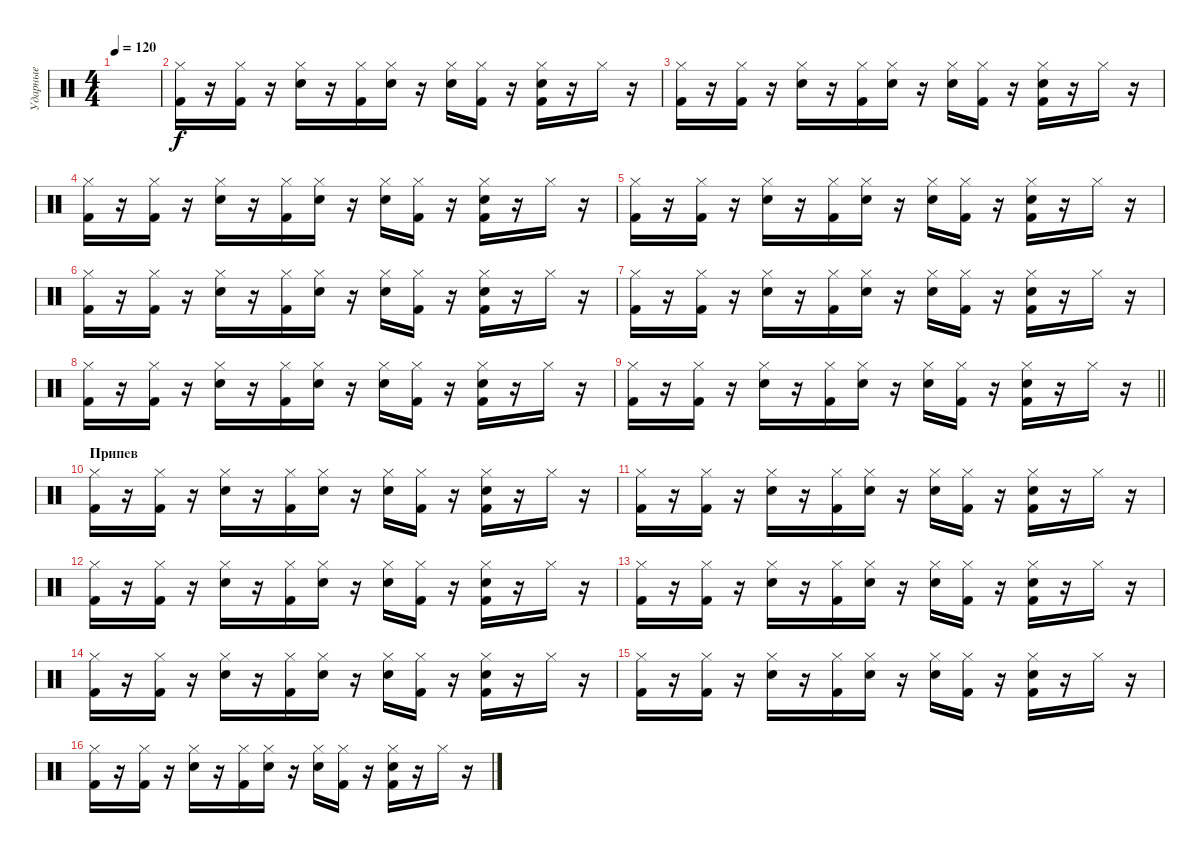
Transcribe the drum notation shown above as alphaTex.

\track ("Ударные" "Ударные") {instrument percussion}
\staff {score}
\articulation defaults
\ts (4 4)
\tempo 120
\clef neutral
\ks c
|
("Hi-Hat (closed)" "Kick (hit) 2").16 r.16 ("Hi-Hat (closed)" "Kick (hit) 2").16 r.16 ("Hi-Hat (closed)" "Electric Snare (hit)").16 r.16 ("Hi-Hat (closed)" "Kick (hit) 2").16 ("Hi-Hat (closed)" "Electric Snare (hit)").16 r.16 ("Hi-Hat (closed)" "Electric Snare (hit)").16 ("Hi-Hat (closed)" "Kick (hit) 2").16 r.16 ("Hi-Hat (closed)" "Electric Snare (hit)" "Kick (hit) 2").16 r.16 "Hi-Hat (closed)".16 r.16 |
("Hi-Hat (closed)" "Kick (hit) 2").16 r.16 ("Hi-Hat (closed)" "Kick (hit) 2").16 r.16 ("Hi-Hat (closed)" "Electric Snare (hit)").16 r.16 ("Hi-Hat (closed)" "Kick (hit) 2").16 ("Hi-Hat (closed)" "Electric Snare (hit)").16 r.16 ("Hi-Hat (closed)" "Electric Snare (hit)").16 ("Hi-Hat (closed)" "Kick (hit) 2").16 r.16 ("Hi-Hat (closed)" "Electric Snare (hit)" "Kick (hit) 2").16 r.16 "Hi-Hat (closed)".16 r.16 |
("Hi-Hat (closed)" "Kick (hit) 2").16 r.16 ("Hi-Hat (closed)" "Kick (hit) 2").16 r.16 ("Hi-Hat (closed)" "Electric Snare (hit)").16 r.16 ("Hi-Hat (closed)" "Kick (hit) 2").16 ("Hi-Hat (closed)" "Electric Snare (hit)").16 r.16 ("Hi-Hat (closed)" "Electric Snare (hit)").16 ("Hi-Hat (closed)" "Kick (hit) 2").16 r.16 ("Hi-Hat (closed)" "Electric Snare (hit)" "Kick (hit) 2").16 r.16 "Hi-Hat (closed)".16 r.16 |
("Hi-Hat (closed)" "Kick (hit) 2").16 r.16 ("Hi-Hat (closed)" "Kick (hit) 2").16 r.16 ("Hi-Hat (closed)" "Electric Snare (hit)").16 r.16 ("Hi-Hat (closed)" "Kick (hit) 2").16 ("Hi-Hat (closed)" "Electric Snare (hit)").16 r.16 ("Hi-Hat (closed)" "Electric Snare (hit)").16 ("Hi-Hat (closed)" "Kick (hit) 2").16 r.16 ("Hi-Hat (closed)" "Electric Snare (hit)" "Kick (hit) 2").16 r.16 "Hi-Hat (closed)".16 r.16 |
("Hi-Hat (closed)" "Kick (hit) 2").16 r.16 ("Hi-Hat (closed)" "Kick (hit) 2").16 r.16 ("Hi-Hat (closed)" "Electric Snare (hit)").16 r.16 ("Hi-Hat (closed)" "Kick (hit) 2").16 ("Hi-Hat (closed)" "Electric Snare (hit)").16 r.16 ("Hi-Hat (closed)" "Electric Snare (hit)").16 ("Hi-Hat (closed)" "Kick (hit) 2").16 r.16 ("Hi-Hat (closed)" "Electric Snare (hit)" "Kick (hit) 2").16 r.16 "Hi-Hat (closed)".16 r.16 |
("Hi-Hat (closed)" "Kick (hit) 2").16 r.16 ("Hi-Hat (closed)" "Kick (hit) 2").16 r.16 ("Hi-Hat (closed)" "Electric Snare (hit)").16 r.16 ("Hi-Hat (closed)" "Kick (hit) 2").16 ("Hi-Hat (closed)" "Electric Snare (hit)").16 r.16 ("Hi-Hat (closed)" "Electric Snare (hit)").16 ("Hi-Hat (closed)" "Kick (hit) 2").16 r.16 ("Hi-Hat (closed)" "Electric Snare (hit)" "Kick (hit) 2").16 r.16 "Hi-Hat (closed)".16 r.16 |
("Hi-Hat (closed)" "Kick (hit) 2").16 r.16 ("Hi-Hat (closed)" "Kick (hit) 2").16 r.16 ("Hi-Hat (closed)" "Electric Snare (hit)").16 r.16 ("Hi-Hat (closed)" "Kick (hit) 2").16 ("Hi-Hat (closed)" "Electric Snare (hit)").16 r.16 ("Hi-Hat (closed)" "Electric Snare (hit)").16 ("Hi-Hat (closed)" "Kick (hit) 2").16 r.16 ("Hi-Hat (closed)" "Electric Snare (hit)" "Kick (hit) 2").16 r.16 "Hi-Hat (closed)".16 r.16 |
\barLineRight lightlight
("Hi-Hat (closed)" "Kick (hit) 2").16 r.16 ("Hi-Hat (closed)" "Kick (hit) 2").16 r.16 ("Hi-Hat (closed)" "Electric Snare (hit)").16 r.16 ("Hi-Hat (closed)" "Kick (hit) 2").16 ("Hi-Hat (closed)" "Electric Snare (hit)").16 r.16 ("Hi-Hat (closed)" "Electric Snare (hit)").16 ("Hi-Hat (closed)" "Kick (hit) 2").16 r.16 ("Hi-Hat (closed)" "Electric Snare (hit)" "Kick (hit) 2").16 r.16 "Hi-Hat (closed)".16 r.16 |
\section ("" "Припев")
("Hi-Hat (closed)" "Kick (hit) 2").16 r.16 ("Hi-Hat (closed)" "Kick (hit) 2").16 r.16 ("Hi-Hat (closed)" "Electric Snare (hit)").16 r.16 ("Hi-Hat (closed)" "Kick (hit) 2").16 ("Hi-Hat (closed)" "Electric Snare (hit)").16 r.16 ("Hi-Hat (closed)" "Electric Snare (hit)").16 ("Hi-Hat (closed)" "Kick (hit) 2").16 r.16 ("Hi-Hat (closed)" "Electric Snare (hit)" "Kick (hit) 2").16 r.16 "Hi-Hat (closed)".16 r.16 |
("Hi-Hat (closed)" "Kick (hit) 2").16 r.16 ("Hi-Hat (closed)" "Kick (hit) 2").16 r.16 ("Hi-Hat (closed)" "Electric Snare (hit)").16 r.16 ("Hi-Hat (closed)" "Kick (hit) 2").16 ("Hi-Hat (closed)" "Electric Snare (hit)").16 r.16 ("Hi-Hat (closed)" "Electric Snare (hit)").16 ("Hi-Hat (closed)" "Kick (hit) 2").16 r.16 ("Hi-Hat (closed)" "Electric Snare (hit)" "Kick (hit) 2").16 r.16 "Hi-Hat (closed)".16 r.16 |
("Hi-Hat (closed)" "Kick (hit) 2").16 r.16 ("Hi-Hat (closed)" "Kick (hit) 2").16 r.16 ("Hi-Hat (closed)" "Electric Snare (hit)").16 r.16 ("Hi-Hat (closed)" "Kick (hit) 2").16 ("Hi-Hat (closed)" "Electric Snare (hit)").16 r.16 ("Hi-Hat (closed)" "Electric Snare (hit)").16 ("Hi-Hat (closed)" "Kick (hit) 2").16 r.16 ("Hi-Hat (closed)" "Electric Snare (hit)" "Kick (hit) 2").16 r.16 "Hi-Hat (closed)".16 r.16 |
("Hi-Hat (closed)" "Kick (hit) 2").16 r.16 ("Hi-Hat (closed)" "Kick (hit) 2").16 r.16 ("Hi-Hat (closed)" "Electric Snare (hit)").16 r.16 ("Hi-Hat (closed)" "Kick (hit) 2").16 ("Hi-Hat (closed)" "Electric Snare (hit)").16 r.16 ("Hi-Hat (closed)" "Electric Snare (hit)").16 ("Hi-Hat (closed)" "Kick (hit) 2").16 r.16 ("Hi-Hat (closed)" "Electric Snare (hit)" "Kick (hit) 2").16 r.16 "Hi-Hat (closed)".16 r.16 |
("Hi-Hat (closed)" "Kick (hit) 2").16 r.16 ("Hi-Hat (closed)" "Kick (hit) 2").16 r.16 ("Hi-Hat (closed)" "Electric Snare (hit)").16 r.16 ("Hi-Hat (closed)" "Kick (hit) 2").16 ("Hi-Hat (closed)" "Electric Snare (hit)").16 r.16 ("Hi-Hat (closed)" "Electric Snare (hit)").16 ("Hi-Hat (closed)" "Kick (hit) 2").16 r.16 ("Hi-Hat (closed)" "Electric Snare (hit)" "Kick (hit) 2").16 r.16 "Hi-Hat (closed)".16 r.16 |
("Hi-Hat (closed)" "Kick (hit) 2").16 r.16 ("Hi-Hat (closed)" "Kick (hit) 2").16 r.16 ("Hi-Hat (closed)" "Electric Snare (hit)").16 r.16 ("Hi-Hat (closed)" "Kick (hit) 2").16 ("Hi-Hat (closed)" "Electric Snare (hit)").16 r.16 ("Hi-Hat (closed)" "Electric Snare (hit)").16 ("Hi-Hat (closed)" "Kick (hit) 2").16 r.16 ("Hi-Hat (closed)" "Electric Snare (hit)" "Kick (hit) 2").16 r.16 "Hi-Hat (closed)".16 r.16 |
("Hi-Hat (closed)" "Kick (hit) 2").16 r.16 ("Hi-Hat (closed)" "Kick (hit) 2").16 r.16 ("Hi-Hat (closed)" "Electric Snare (hit)").16 r.16 ("Hi-Hat (closed)" "Kick (hit) 2").16 ("Hi-Hat (closed)" "Electric Snare (hit)").16 r.16 ("Hi-Hat (closed)" "Electric Snare (hit)").16 ("Hi-Hat (closed)" "Kick (hit) 2").16 r.16 ("Hi-Hat (closed)" "Electric Snare (hit)" "Kick (hit) 2").16 r.16 "Hi-Hat (closed)".16 r.16
